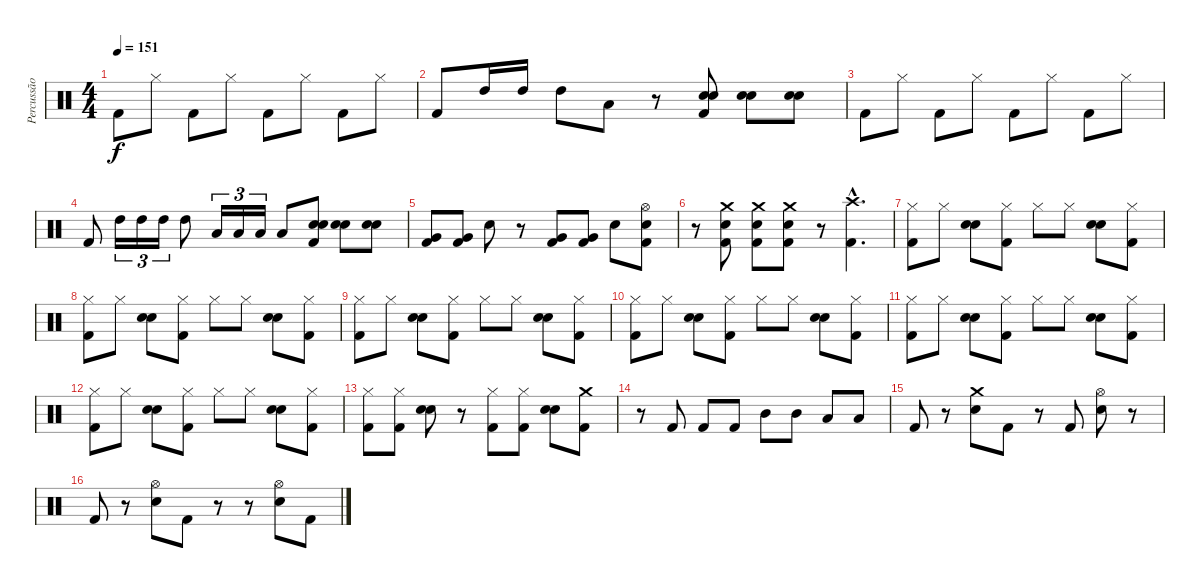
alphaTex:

\track ("Percussão" "Percussão") {instrument percussion}
\staff {score}
\articulation defaults
\ts (4 4)
\tempo 151
\clef neutral
\ks c "Kick (hit) 2".8{dy f} "Hi-Hat (closed)".8 "Kick (hit) 2".8 "Hi-Hat (closed)".8 "Kick (hit) 2".8 "Hi-Hat (closed)".8 "Kick (hit) 2".8 "Hi-Hat (closed)".8
|
"Kick (hit) 2".8 "High Tom (hit)".16 "High Tom (hit)".16 "High Tom (hit)".8 "Low Tom (hit)".8 r.8 ("Kick (hit) 2" "Snare (hit) 2" "Hand Clap (hit)").8 ("Snare (hit) 2" "Hand Clap (hit)").8 ("Snare (hit) 2" "Hand Clap (hit)").8 |
"Kick (hit) 2".8 "Hi-Hat (closed)".8 "Kick (hit) 2".8 "Hi-Hat (closed)".8 "Kick (hit) 2".8 "Hi-Hat (closed)".8 "Kick (hit) 2".8 "Hi-Hat (closed)".8 |
"Kick (hit) 2".8 "High Tom (hit)".16{tu (3 2)} "High Tom (hit)".16{tu (3 2)} "High Tom (hit)".16{tu (3 2)} "High Tom (hit)".8 "Low Tom (hit)".16{tu (3 2)} "Low Tom (hit)".16{tu (3 2)} "Low Tom (hit)".16{tu (3 2)} "Low Tom (hit)".8 ("Kick (hit) 2" "Snare (hit) 2" "Hand Clap (hit)").8 ("Snare (hit) 2" "Hand Clap (hit)").8 ("Snare (hit) 2" "Hand Clap (hit)").8 |
("Kick (hit) 2" "Very Low Tom (hit)").8 ("Kick (hit) 2" "Very Low Tom (hit)").8 "Hand Clap (hit)".8 r.8 ("Kick (hit) 2" "Very Low Tom (hit)").8 ("Kick (hit) 2" "Very Low Tom (hit)").8 "Hand Clap (hit)".8 ("Kick (hit) 2" "Snare (hit) 2" "Hi-Hat (open)").8 |
r.8 ("Kick (hit) 2" "Snare (hit) 2" "Crash medium (hit)").8 ("Kick (hit) 2" "Snare (hit) 2" "Crash medium (hit)").8 ("Kick (hit) 2" "Snare (hit) 2" "Crash medium (hit)").8 r.8 ("Kick (hit) 2"{hac} "Crash high (hit)"{hac}).4{d} |
("Kick (hit) 2" "Hi-Hat (closed)").8 "Hi-Hat (closed)".8 ("Snare (hit) 2" "Hand Clap (hit)").8 ("Kick (hit) 2" "Hi-Hat (closed)").8 "Hi-Hat (closed)".8 "Hi-Hat (closed)".8 ("Snare (hit) 2" "Hand Clap (hit)").8 ("Kick (hit) 2" "Hi-Hat (closed)").8 |
("Kick (hit) 2" "Hi-Hat (closed)").8 "Hi-Hat (closed)".8 ("Snare (hit) 2" "Hand Clap (hit)").8 ("Kick (hit) 2" "Hi-Hat (closed)").8 "Hi-Hat (closed)".8 "Hi-Hat (closed)".8 ("Snare (hit) 2" "Hand Clap (hit)").8 ("Kick (hit) 2" "Hi-Hat (closed)").8 |
("Kick (hit) 2" "Hi-Hat (closed)").8 "Hi-Hat (closed)".8 ("Snare (hit) 2" "Hand Clap (hit)").8 ("Kick (hit) 2" "Hi-Hat (closed)").8 "Hi-Hat (closed)".8 "Hi-Hat (closed)".8 ("Snare (hit) 2" "Hand Clap (hit)").8 ("Kick (hit) 2" "Hi-Hat (closed)").8 |
("Kick (hit) 2" "Hi-Hat (closed)").8 "Hi-Hat (closed)".8 ("Snare (hit) 2" "Hand Clap (hit)").8 ("Kick (hit) 2" "Hi-Hat (closed)").8 "Hi-Hat (closed)".8 "Hi-Hat (closed)".8 ("Snare (hit) 2" "Hand Clap (hit)").8 ("Kick (hit) 2" "Hi-Hat (closed)").8 |
("Kick (hit) 2" "Hi-Hat (closed)").8 "Hi-Hat (closed)".8 ("Snare (hit) 2" "Hand Clap (hit)").8 ("Kick (hit) 2" "Hi-Hat (closed)").8 "Hi-Hat (closed)".8 "Hi-Hat (closed)".8 ("Snare (hit) 2" "Hand Clap (hit)").8 ("Kick (hit) 2" "Hi-Hat (closed)").8 |
("Kick (hit) 2" "Hi-Hat (closed)").8 "Hi-Hat (closed)".8 ("Snare (hit) 2" "Hand Clap (hit)").8 ("Kick (hit) 2" "Hi-Hat (closed)").8 "Hi-Hat (closed)".8 "Hi-Hat (closed)".8 ("Snare (hit) 2" "Hand Clap (hit)").8 ("Kick (hit) 2" "Hi-Hat (closed)").8 |
("Kick (hit) 2" "Hi-Hat (closed)").8 ("Kick (hit) 2" "Hi-Hat (closed)").8 ("Snare (hit) 2" "Hand Clap (hit)").8 r.8 ("Kick (hit) 2" "Hi-Hat (closed)").8 ("Kick (hit) 2" "Hi-Hat (closed)").8 ("Snare (hit) 2" "Hand Clap (hit)").8 ("Kick (hit) 2" "Crash medium (hit)").8 |
r.8 "Kick (hit) 2".8 "Kick (hit) 2".8 "Kick (hit) 2".8 "Mid Tom (hit)".8 "Mid Tom (hit)".8 "Low Tom (hit)".8 "Low Tom (hit)".8 |
"Kick (hit) 2".8 r.8 ("Snare (hit) 2" "Crash medium (hit)").8 "Kick (hit) 2".8 r.8 "Kick (hit) 2".8 ("Snare (hit) 2" "Hi-Hat (open)").8 r.8 |
"Kick (hit) 2".8 r.8 ("Snare (hit) 2" "Hi-Hat (open)").8 "Kick (hit) 2".8 r.8 r.8 ("Snare (hit) 2" "Hi-Hat (open)").8 "Kick (hit) 2".8
